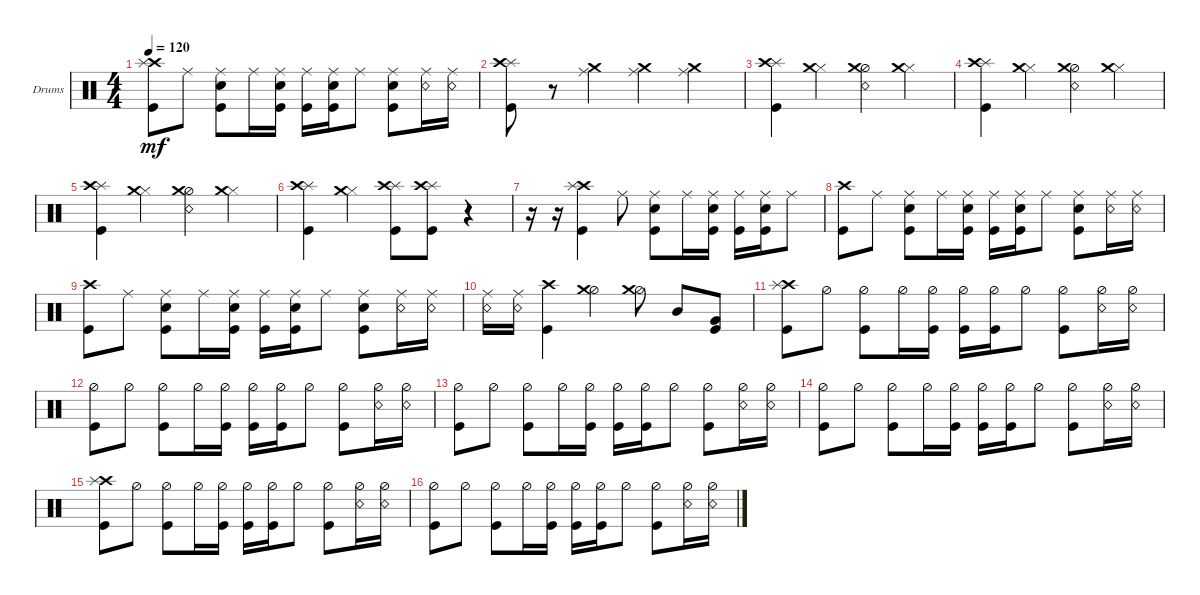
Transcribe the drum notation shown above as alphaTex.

\defaultSystemsLayout 4
\bracketExtendMode groupsimilarinstruments
\firstSystemTrackNameOrientation horizontal
\otherSystemsTrackNameOrientation horizontal
\track ("Нюта" "Drums") {instrument percussion}
\staff {score}
\articulation defaults
\ts (4 4)
\tempo 120
\clef neutral
\ks c
("Crash high (hit)" "Kick (hit)" "Splash (hit)").8{dy mf} "Ride (middle)".8 ("Ride (middle)" "Kick (hit)" "Snare (hit) 2").8 "Ride (middle)".16 ("Ride (middle)" "Kick (hit)" "Snare (hit) 2").16 ("Ride (middle)" "Kick (hit)").16 ("Ride (middle)" "Kick (hit)" "Snare (hit) 2").16 "Ride (middle)".8 ("Snare (hit) 2" "Ride (middle)" "Kick (hit)").8 ("Snare (rim shot)" "Ride (middle)").16 ("Snare (rim shot)" "Ride (middle)").16 |
("Kick (hit)" "Splash (hit)" "Crash high (hit)").8 r.8 ("Ride (middle)" "Crash medium (hit)").4 ("Ride (middle)" "Crash medium (hit)").4 ("Ride (middle)" "Crash medium (hit)").4 |
("Splash (hit)" "Crash high (hit)" "Kick (hit)").4 ("Hi-Hat (closed)" "Crash medium (hit)").4 ("Hi-Hat (half)" "Crash medium (hit)" "Snare (rim shot)").4 ("Hi-Hat (closed)" "Crash medium (hit)").4 |
("Splash (hit)" "Crash high (hit)" "Kick (hit)").4 ("Hi-Hat (closed)" "Crash medium (hit)").4 ("Hi-Hat (half)" "Crash medium (hit)" "Snare (rim shot)").4 ("Hi-Hat (closed)" "Crash medium (hit)").4 |
("Splash (hit)" "Crash high (hit)" "Kick (hit)").4 ("Hi-Hat (closed)" "Crash medium (hit)").4 ("Hi-Hat (half)" "Crash medium (hit)" "Snare (rim shot)").4 ("Hi-Hat (closed)" "Crash medium (hit)").4 |
("Splash (hit)" "Crash high (hit)" "Kick (hit)").4 ("Hi-Hat (closed)" "Crash medium (hit)").4 ("Splash (hit)" "Crash high (hit)" "Kick (hit)").8 ("Splash (hit)" "Crash high (hit)" "Kick (hit)").8 r.4 |
r.16 r.16 ("Kick (hit)" "Crash high (hit)" "Splash (hit)").4 "Ride (middle)".8 ("Ride (middle)" "Kick (hit)" "Snare (hit) 2").8 "Ride (middle)".16 ("Ride (middle)" "Kick (hit)" "Snare (hit) 2").16 ("Ride (middle)" "Kick (hit)").16 ("Ride (middle)" "Kick (hit)" "Snare (hit) 2").16 "Ride (middle)".8 |
("Crash high (hit)" "Kick (hit)").8 "Ride (middle)".8 ("Ride (middle)" "Kick (hit)" "Snare (hit) 2").8 "Ride (middle)".16 ("Ride (middle)" "Kick (hit)" "Snare (hit) 2").16 ("Ride (middle)" "Kick (hit)").16 ("Ride (middle)" "Kick (hit)" "Snare (hit) 2").16 "Ride (middle)".8 ("Snare (hit) 2" "Ride (middle)" "Kick (hit)").8 ("Snare (rim shot)" "Ride (middle)").16 ("Snare (rim shot)" "Ride (middle)").16 |
("Crash high (hit)" "Kick (hit)").8 "Ride (middle)".8 ("Ride (middle)" "Kick (hit)" "Snare (hit) 2").8 "Ride (middle)".16 ("Ride (middle)" "Kick (hit)" "Snare (hit) 2").16 ("Ride (middle)" "Kick (hit)").16 ("Ride (middle)" "Kick (hit)" "Snare (hit) 2").16 "Ride (middle)".8 ("Snare (hit) 2" "Ride (middle)" "Kick (hit)").8 ("Snare (rim shot)" "Ride (middle)").16 ("Snare (rim shot)" "Ride (middle)").16 |
("Snare (rim shot)" "Ride (middle)").16 ("Snare (rim shot)" "Ride (middle)").16 ("Crash high (hit)" "Kick (hit)").4 ("Hi-Hat (half)" "Crash medium (hit)").4 ("Hi-Hat (half)" "Crash medium (hit)").8 "Mid Tom (hit)".8 ("Very Low Tom (hit)" "Kick (hit)").8 |
("Crash high (hit)" "Kick (hit)" "Splash (hit)").8 "Hi-Hat (half)".8 ("Kick (hit)" "Hi-Hat (half)").8 "Hi-Hat (half)".16 ("Kick (hit)" "Hi-Hat (half)").16 ("Kick (hit)" "Hi-Hat (half)").16 ("Kick (hit)" "Hi-Hat (half)").16 "Hi-Hat (half)".8 ("Kick (hit)" "Hi-Hat (half)").8 ("Snare (rim shot)" "Hi-Hat (half)").16 ("Snare (rim shot)" "Hi-Hat (half)").16 |
("Kick (hit)" "Hi-Hat (half)").8 "Hi-Hat (half)".8 ("Kick (hit)" "Hi-Hat (half)").8 "Hi-Hat (half)".16 ("Kick (hit)" "Hi-Hat (half)").16 ("Kick (hit)" "Hi-Hat (half)").16 ("Kick (hit)" "Hi-Hat (half)").16 "Hi-Hat (half)".8 ("Kick (hit)" "Hi-Hat (half)").8 ("Snare (rim shot)" "Hi-Hat (half)").16 ("Snare (rim shot)" "Hi-Hat (half)").16 |
("Kick (hit)" "Hi-Hat (half)").8 "Hi-Hat (half)".8 ("Kick (hit)" "Hi-Hat (half)").8 "Hi-Hat (half)".16 ("Kick (hit)" "Hi-Hat (half)").16 ("Kick (hit)" "Hi-Hat (half)").16 ("Kick (hit)" "Hi-Hat (half)").16 "Hi-Hat (half)".8 ("Kick (hit)" "Hi-Hat (half)").8 ("Snare (rim shot)" "Hi-Hat (half)").16 ("Snare (rim shot)" "Hi-Hat (half)").16 |
("Kick (hit)" "Hi-Hat (half)").8 "Hi-Hat (half)".8 ("Kick (hit)" "Hi-Hat (half)").8 "Hi-Hat (half)".16 ("Kick (hit)" "Hi-Hat (half)").16 ("Kick (hit)" "Hi-Hat (half)").16 ("Kick (hit)" "Hi-Hat (half)").16 "Hi-Hat (half)".8 ("Kick (hit)" "Hi-Hat (half)").8 ("Snare (rim shot)" "Hi-Hat (half)").16 ("Snare (rim shot)" "Hi-Hat (half)").16 |
("Crash high (hit)" "Kick (hit)" "Splash (hit)").8 "Hi-Hat (half)".8 ("Kick (hit)" "Hi-Hat (half)").8 "Hi-Hat (half)".16 ("Kick (hit)" "Hi-Hat (half)").16 ("Kick (hit)" "Hi-Hat (half)").16 ("Kick (hit)" "Hi-Hat (half)").16 "Hi-Hat (half)".8 ("Kick (hit)" "Hi-Hat (half)").8 ("Snare (rim shot)" "Hi-Hat (half)").16 ("Snare (rim shot)" "Hi-Hat (half)").16 |
("Kick (hit)" "Hi-Hat (half)").8 "Hi-Hat (half)".8 ("Kick (hit)" "Hi-Hat (half)").8 "Hi-Hat (half)".16 ("Kick (hit)" "Hi-Hat (half)").16 ("Kick (hit)" "Hi-Hat (half)").16 ("Kick (hit)" "Hi-Hat (half)").16 "Hi-Hat (half)".8 ("Kick (hit)" "Hi-Hat (half)").8 ("Snare (rim shot)" "Hi-Hat (half)").16 ("Snare (rim shot)" "Hi-Hat (half)").16
